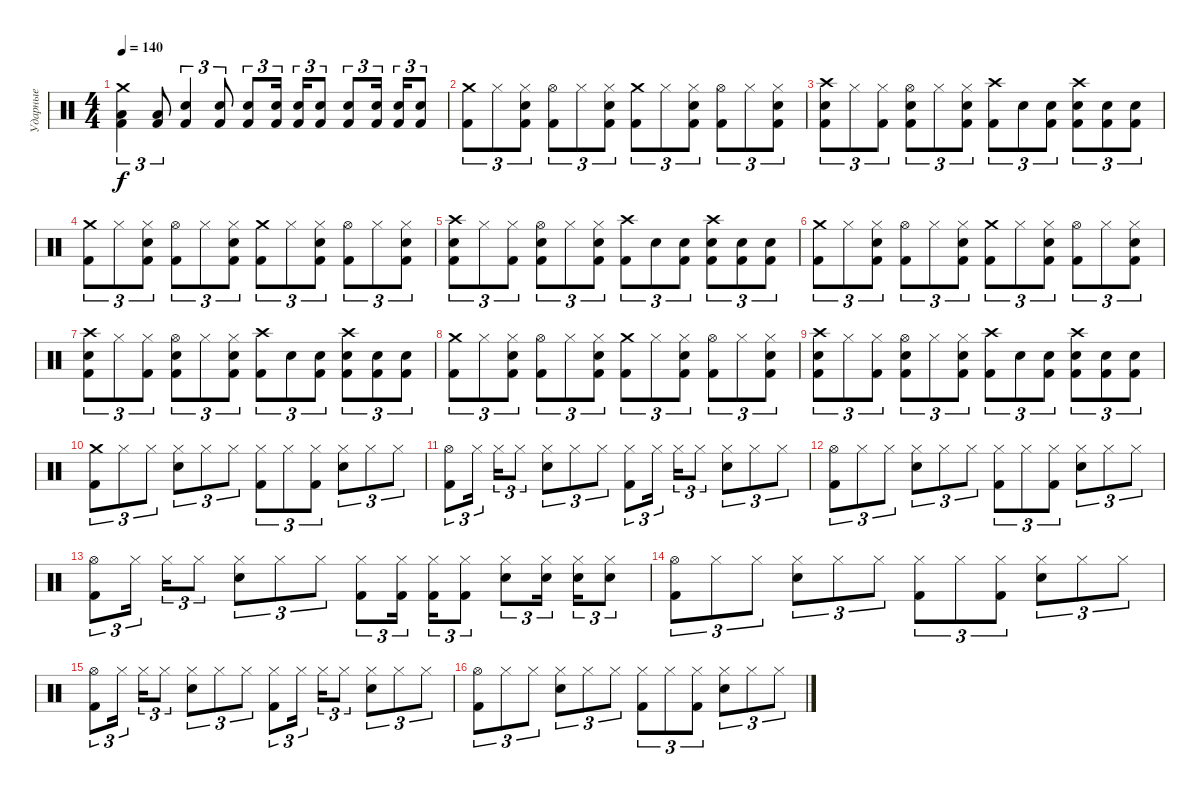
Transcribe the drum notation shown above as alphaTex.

\track ("Ударные" "Ударные") {instrument percussion}
\staff {score}
\articulation defaults
\ts (4 4)
\tempo 140
\clef neutral
\ks c
("Crash medium (hit)" "Low Floor Tom (hit)" "Kick (hit) 2").4{tu (3 2) dy f} ("Low Floor Tom (hit)" "Kick (hit) 2").8{tu (3 2)} ("Snare (hit) 2" "Kick (hit) 2").4{tu (3 2)} ("Snare (hit) 2" "Kick (hit) 2").8{tu (3 2)} ("Electric Snare (hit)" "Kick (hit) 2").8{tu (3 2)} ("Electric Snare (hit)" "Kick (hit) 2").16{tu (3 2) beam splitsecondary} ("Electric Snare (hit)" "Kick (hit) 2").16{tu (3 2)} ("Electric Snare (hit)" "Kick (hit) 2").8{tu (3 2)} ("Snare (hit) 2" "Kick (hit) 2").8{tu (3 2)} ("Snare (hit) 2" "Kick (hit) 2").16{tu (3 2) beam splitsecondary} ("Snare (hit) 2" "Kick (hit) 2").16{tu (3 2)} ("Snare (hit) 2" "Kick (hit) 2").8{tu (3 2)} |
("Crash medium (hit)" "Kick (hit) 2").8{tu (3 2)} "Hi-Hat (closed)".8{tu (3 2)} ("Hi-Hat (closed)" "Snare (hit) 2" "Kick (hit) 2").8{tu (3 2)} ("Hi-Hat (open)" "Kick (hit) 2").8{tu (3 2)} "Hi-Hat (closed)".8{tu (3 2)} ("Hi-Hat (closed)" "Snare (hit) 2" "Kick (hit) 2").8{tu (3 2)} ("Crash medium (hit)" "Kick (hit) 2").8{tu (3 2)} "Hi-Hat (closed)".8{tu (3 2)} ("Hi-Hat (closed)" "Snare (hit) 2" "Kick (hit) 2").8{tu (3 2)} ("Hi-Hat (open)" "Kick (hit) 2").8{tu (3 2)} "Hi-Hat (closed)".8{tu (3 2)} ("Hi-Hat (closed)" "Snare (hit) 2" "Kick (hit) 2").8{tu (3 2)} |
("Crash high (hit)" "Snare (hit) 2" "Kick (hit) 2").8{tu (3 2)} "Hi-Hat (closed)".8{tu (3 2)} ("Hi-Hat (closed)" "Kick (hit) 2").8{tu (3 2)} ("Hi-Hat (open)" "Snare (hit) 2" "Kick (hit) 2").8{tu (3 2)} "Hi-Hat (closed)".8{tu (3 2)} ("Hi-Hat (closed)" "Snare (hit) 2" "Kick (hit) 2").8{tu (3 2)} ("Crash high (hit)" "Kick (hit) 2").8{tu (3 2)} "Snare (hit) 2".8{tu (3 2)} ("Snare (hit) 2" "Kick (hit) 2").8{tu (3 2)} ("Crash high (hit)" "Snare (hit) 2" "Kick (hit) 2").8{tu (3 2)} ("Snare (hit) 2" "Kick (hit) 2").8{tu (3 2)} ("Snare (hit) 2" "Kick (hit) 2").8{tu (3 2)} |
("Crash medium (hit)" "Kick (hit) 2").8{tu (3 2)} "Hi-Hat (closed)".8{tu (3 2)} ("Hi-Hat (closed)" "Snare (hit) 2" "Kick (hit) 2").8{tu (3 2)} ("Hi-Hat (open)" "Kick (hit) 2").8{tu (3 2)} "Hi-Hat (closed)".8{tu (3 2)} ("Hi-Hat (closed)" "Snare (hit) 2" "Kick (hit) 2").8{tu (3 2)} ("Crash medium (hit)" "Kick (hit) 2").8{tu (3 2)} "Hi-Hat (closed)".8{tu (3 2)} ("Hi-Hat (closed)" "Snare (hit) 2" "Kick (hit) 2").8{tu (3 2)} ("Hi-Hat (open)" "Kick (hit) 2").8{tu (3 2)} "Hi-Hat (closed)".8{tu (3 2)} ("Hi-Hat (closed)" "Snare (hit) 2" "Kick (hit) 2").8{tu (3 2)} |
("Crash high (hit)" "Snare (hit) 2" "Kick (hit) 2").8{tu (3 2)} "Hi-Hat (closed)".8{tu (3 2)} ("Hi-Hat (closed)" "Kick (hit) 2").8{tu (3 2)} ("Hi-Hat (open)" "Snare (hit) 2" "Kick (hit) 2").8{tu (3 2)} "Hi-Hat (closed)".8{tu (3 2)} ("Hi-Hat (closed)" "Snare (hit) 2" "Kick (hit) 2").8{tu (3 2)} ("Crash high (hit)" "Kick (hit) 2").8{tu (3 2)} "Snare (hit) 2".8{tu (3 2)} ("Snare (hit) 2" "Kick (hit) 2").8{tu (3 2)} ("Crash high (hit)" "Snare (hit) 2" "Kick (hit) 2").8{tu (3 2)} ("Snare (hit) 2" "Kick (hit) 2").8{tu (3 2)} ("Snare (hit) 2" "Kick (hit) 2").8{tu (3 2)} |
("Crash medium (hit)" "Kick (hit) 2").8{tu (3 2)} "Hi-Hat (closed)".8{tu (3 2)} ("Hi-Hat (closed)" "Snare (hit) 2" "Kick (hit) 2").8{tu (3 2)} ("Hi-Hat (open)" "Kick (hit) 2").8{tu (3 2)} "Hi-Hat (closed)".8{tu (3 2)} ("Hi-Hat (closed)" "Snare (hit) 2" "Kick (hit) 2").8{tu (3 2)} ("Crash medium (hit)" "Kick (hit) 2").8{tu (3 2)} "Hi-Hat (closed)".8{tu (3 2)} ("Hi-Hat (closed)" "Snare (hit) 2" "Kick (hit) 2").8{tu (3 2)} ("Hi-Hat (open)" "Kick (hit) 2").8{tu (3 2)} "Hi-Hat (closed)".8{tu (3 2)} ("Hi-Hat (closed)" "Snare (hit) 2" "Kick (hit) 2").8{tu (3 2)} |
("Crash high (hit)" "Snare (hit) 2" "Kick (hit) 2").8{tu (3 2)} "Hi-Hat (closed)".8{tu (3 2)} ("Hi-Hat (closed)" "Kick (hit) 2").8{tu (3 2)} ("Hi-Hat (open)" "Snare (hit) 2" "Kick (hit) 2").8{tu (3 2)} "Hi-Hat (closed)".8{tu (3 2)} ("Hi-Hat (closed)" "Snare (hit) 2" "Kick (hit) 2").8{tu (3 2)} ("Crash high (hit)" "Kick (hit) 2").8{tu (3 2)} "Snare (hit) 2".8{tu (3 2)} ("Snare (hit) 2" "Kick (hit) 2").8{tu (3 2)} ("Crash high (hit)" "Snare (hit) 2" "Kick (hit) 2").8{tu (3 2)} ("Snare (hit) 2" "Kick (hit) 2").8{tu (3 2)} ("Snare (hit) 2" "Kick (hit) 2").8{tu (3 2)} |
("Crash medium (hit)" "Kick (hit) 2").8{tu (3 2)} "Hi-Hat (closed)".8{tu (3 2)} ("Hi-Hat (closed)" "Snare (hit) 2" "Kick (hit) 2").8{tu (3 2)} ("Hi-Hat (open)" "Kick (hit) 2").8{tu (3 2)} "Hi-Hat (closed)".8{tu (3 2)} ("Hi-Hat (closed)" "Snare (hit) 2" "Kick (hit) 2").8{tu (3 2)} ("Crash medium (hit)" "Kick (hit) 2").8{tu (3 2)} "Hi-Hat (closed)".8{tu (3 2)} ("Hi-Hat (closed)" "Snare (hit) 2" "Kick (hit) 2").8{tu (3 2)} ("Hi-Hat (open)" "Kick (hit) 2").8{tu (3 2)} "Hi-Hat (closed)".8{tu (3 2)} ("Hi-Hat (closed)" "Snare (hit) 2" "Kick (hit) 2").8{tu (3 2)} |
("Crash high (hit)" "Snare (hit) 2" "Kick (hit) 2").8{tu (3 2)} "Hi-Hat (closed)".8{tu (3 2)} ("Hi-Hat (closed)" "Kick (hit) 2").8{tu (3 2)} ("Hi-Hat (open)" "Snare (hit) 2" "Kick (hit) 2").8{tu (3 2)} "Hi-Hat (closed)".8{tu (3 2)} ("Hi-Hat (closed)" "Snare (hit) 2" "Kick (hit) 2").8{tu (3 2)} ("Crash high (hit)" "Kick (hit) 2").8{tu (3 2)} "Snare (hit) 2".8{tu (3 2)} ("Snare (hit) 2" "Kick (hit) 2").8{tu (3 2)} ("Crash high (hit)" "Snare (hit) 2" "Kick (hit) 2").8{tu (3 2)} ("Snare (hit) 2" "Kick (hit) 2").8{tu (3 2)} ("Snare (hit) 2" "Kick (hit) 2").8{tu (3 2)} |
("Crash medium (hit)" "Kick (hit) 2").8{tu (3 2)} "Hi-Hat (closed)".8{tu (3 2)} "Hi-Hat (closed)".8{tu (3 2)} ("Hi-Hat (closed)" "Snare (hit) 2").8{tu (3 2)} "Hi-Hat (closed)".8{tu (3 2)} "Hi-Hat (closed)".8{tu (3 2)} ("Hi-Hat (closed)" "Kick (hit) 2").8{tu (3 2)} "Hi-Hat (closed)".8{tu (3 2)} ("Hi-Hat (closed)" "Kick (hit) 2").8{tu (3 2)} ("Hi-Hat (closed)" "Snare (hit) 2").8{tu (3 2)} "Hi-Hat (closed)".8{tu (3 2)} "Hi-Hat (closed)".8{tu (3 2)} |
("Hi-Hat (open)" "Kick (hit) 2").8{tu (3 2)} "Hi-Hat (closed)".16{tu (3 2) beam splitsecondary} "Hi-Hat (closed)".16{tu (3 2)} "Hi-Hat (closed)".8{tu (3 2)} ("Hi-Hat (closed)" "Snare (hit) 2").8{tu (3 2)} "Hi-Hat (closed)".8{tu (3 2)} "Hi-Hat (closed)".8{tu (3 2)} ("Hi-Hat (closed)" "Kick (hit) 2").8{tu (3 2)} "Hi-Hat (closed)".16{tu (3 2) beam splitsecondary} "Hi-Hat (closed)".16{tu (3 2)} "Hi-Hat (closed)".8{tu (3 2)} ("Hi-Hat (closed)" "Snare (hit) 2").8{tu (3 2)} "Hi-Hat (closed)".8{tu (3 2)} "Hi-Hat (closed)".8{tu (3 2)} |
("Hi-Hat (open)" "Kick (hit) 2").8{tu (3 2)} "Hi-Hat (closed)".8{tu (3 2)} "Hi-Hat (closed)".8{tu (3 2)} ("Hi-Hat (closed)" "Snare (hit) 2").8{tu (3 2)} "Hi-Hat (closed)".8{tu (3 2)} "Hi-Hat (closed)".8{tu (3 2)} ("Hi-Hat (closed)" "Kick (hit) 2").8{tu (3 2)} "Hi-Hat (closed)".8{tu (3 2)} ("Hi-Hat (closed)" "Kick (hit) 2").8{tu (3 2)} ("Hi-Hat (closed)" "Snare (hit) 2").8{tu (3 2)} "Hi-Hat (closed)".8{tu (3 2)} "Hi-Hat (closed)".8{tu (3 2)} |
("Hi-Hat (open)" "Kick (hit) 2").8{tu (3 2)} "Hi-Hat (closed)".16{tu (3 2) beam splitsecondary} "Hi-Hat (closed)".16{tu (3 2)} "Hi-Hat (closed)".8{tu (3 2)} ("Hi-Hat (closed)" "Snare (hit) 2").8{tu (3 2)} "Hi-Hat (closed)".8{tu (3 2)} "Hi-Hat (closed)".8{tu (3 2)} ("Hi-Hat (closed)" "Kick (hit) 2").8{tu (3 2)} ("Hi-Hat (closed)" "Kick (hit) 2").16{tu (3 2) beam splitsecondary} ("Hi-Hat (closed)" "Kick (hit) 2").16{tu (3 2)} ("Hi-Hat (closed)" "Kick (hit) 2").8{tu (3 2)} ("Hi-Hat (closed)" "Snare (hit) 2").8{tu (3 2)} ("Hi-Hat (closed)" "Snare (hit) 2").16{tu (3 2) beam splitsecondary} ("Hi-Hat (closed)" "Snare (hit) 2").16{tu (3 2)} ("Hi-Hat (closed)" "Snare (hit) 2").8{tu (3 2)} |
("Hi-Hat (open)" "Kick (hit) 2").8{tu (3 2)} "Hi-Hat (closed)".8{tu (3 2)} "Hi-Hat (closed)".8{tu (3 2)} ("Hi-Hat (closed)" "Snare (hit) 2").8{tu (3 2)} "Hi-Hat (closed)".8{tu (3 2)} "Hi-Hat (closed)".8{tu (3 2)} ("Hi-Hat (closed)" "Kick (hit) 2").8{tu (3 2)} "Hi-Hat (closed)".8{tu (3 2)} ("Hi-Hat (closed)" "Kick (hit) 2").8{tu (3 2)} ("Hi-Hat (closed)" "Snare (hit) 2").8{tu (3 2)} "Hi-Hat (closed)".8{tu (3 2)} "Hi-Hat (closed)".8{tu (3 2)} |
("Hi-Hat (open)" "Kick (hit) 2").8{tu (3 2)} "Hi-Hat (closed)".16{tu (3 2) beam splitsecondary} "Hi-Hat (closed)".16{tu (3 2)} "Hi-Hat (closed)".8{tu (3 2)} ("Hi-Hat (closed)" "Snare (hit) 2").8{tu (3 2)} "Hi-Hat (closed)".8{tu (3 2)} "Hi-Hat (closed)".8{tu (3 2)} ("Hi-Hat (closed)" "Kick (hit) 2").8{tu (3 2)} "Hi-Hat (closed)".16{tu (3 2) beam splitsecondary} "Hi-Hat (closed)".16{tu (3 2)} "Hi-Hat (closed)".8{tu (3 2)} ("Hi-Hat (closed)" "Snare (hit) 2").8{tu (3 2)} "Hi-Hat (closed)".8{tu (3 2)} "Hi-Hat (closed)".8{tu (3 2)} |
("Hi-Hat (open)" "Kick (hit) 2").8{tu (3 2)} "Hi-Hat (closed)".8{tu (3 2)} "Hi-Hat (closed)".8{tu (3 2)} ("Hi-Hat (closed)" "Snare (hit) 2").8{tu (3 2)} "Hi-Hat (closed)".8{tu (3 2)} "Hi-Hat (closed)".8{tu (3 2)} ("Hi-Hat (closed)" "Kick (hit) 2").8{tu (3 2)} "Hi-Hat (closed)".8{tu (3 2)} ("Hi-Hat (closed)" "Kick (hit) 2").8{tu (3 2)} ("Hi-Hat (closed)" "Snare (hit) 2").8{tu (3 2)} "Hi-Hat (closed)".8{tu (3 2)} "Hi-Hat (closed)".8{tu (3 2)}
